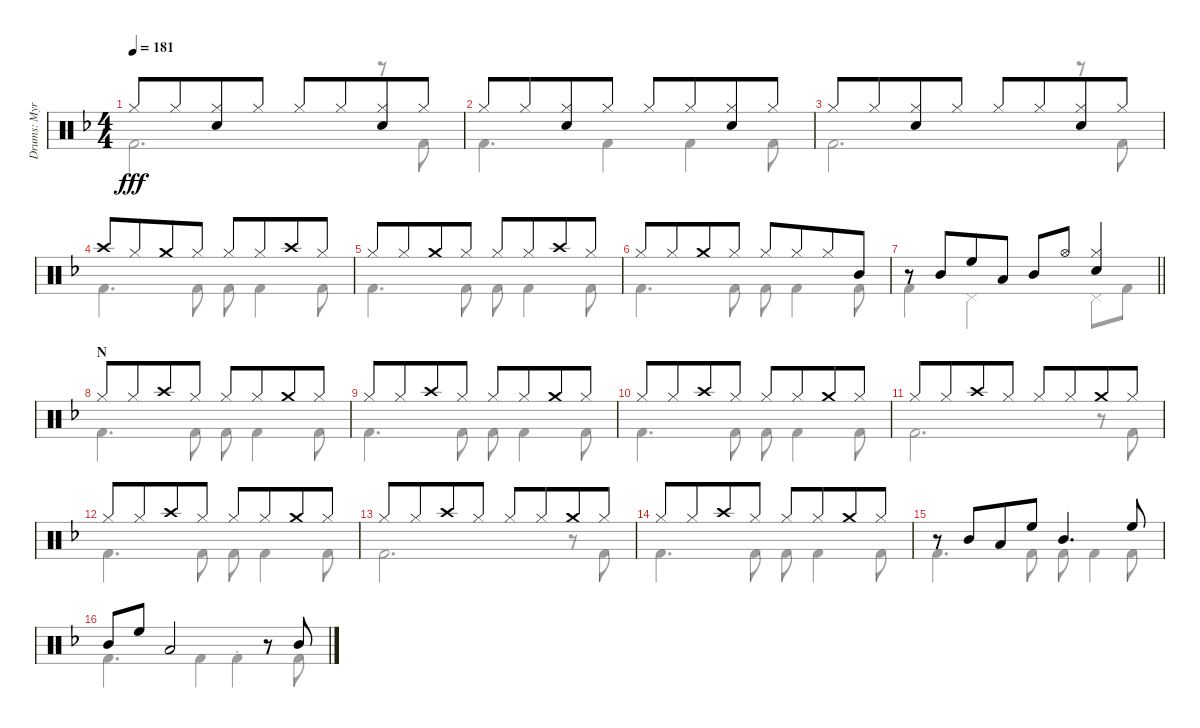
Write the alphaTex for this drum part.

\track ("Drums: Myron" "Drums: Myr") {instrument percussion}
\staff {score}
\articulation defaults
\voice
\ts (4 4)
\tempo 181
\clef neutral
\ks f "Hi-Hat (closed)".8{dy fff} "Hi-Hat (closed)".8{beam merge}
("Hi-Hat (closed)" "Electric Snare (hit)").8 "Hi-Hat (closed)".8 "Hi-Hat (closed)".8 "Hi-Hat (closed)".8{beam merge} ("Hi-Hat (closed)" "Electric Snare (hit)").8 "Hi-Hat (closed)".8 |
"Hi-Hat (closed)".8 "Hi-Hat (closed)".8{beam merge} ("Hi-Hat (closed)" "Electric Snare (hit)").8 "Hi-Hat (closed)".8 "Hi-Hat (closed)".8 "Hi-Hat (closed)".8{beam merge} ("Hi-Hat (closed)" "Electric Snare (hit)").8 "Hi-Hat (closed)".8 |
"Hi-Hat (closed)".8 "Hi-Hat (closed)".8{beam merge} ("Hi-Hat (closed)" "Electric Snare (hit)").8 "Hi-Hat (closed)".8 "Hi-Hat (closed)".8 "Hi-Hat (closed)".8{beam merge} ("Hi-Hat (closed)" "Electric Snare (hit)").8 "Hi-Hat (closed)".8 |
"Crash high (hit)".8 "Hi-Hat (closed)".8{beam merge} "Crash medium (hit)".8 "Hi-Hat (closed)".8 "Hi-Hat (closed)".8 "Hi-Hat (closed)".8{beam merge} "Crash high (hit)".8 "Hi-Hat (closed)".8 |
"Hi-Hat (closed)".8 "Hi-Hat (closed)".8{beam merge} "Crash medium (hit)".8 "Hi-Hat (closed)".8 "Hi-Hat (closed)".8 "Hi-Hat (closed)".8{beam merge} "Crash high (hit)".8 "Hi-Hat (closed)".8 |
"Hi-Hat (closed)".8 "Hi-Hat (closed)".8{beam merge} "Crash medium (hit)".8 "Hi-Hat (closed)".8 "Hi-Hat (closed)".8 "Hi-Hat (closed)".8{beam merge} "Hi-Hat (closed)".8 "Mid Tom (hit)".8 |
\barLineRight lightlight
r.8 "Mid Tom (hit)".8{beam merge} "High Floor Tom (hit)".8 "Low Tom (hit)".8 "Mid Tom (hit)".8 "Hi-Hat (open)".8 ("Hi-Hat (closed)" "Snare (hit) 2").4 |
\section ("" "N")
"Hi-Hat (closed)".8 "Hi-Hat (closed)".8{beam merge} "Crash high (hit)".8 "Hi-Hat (closed)".8 "Hi-Hat (closed)".8 "Hi-Hat (closed)".8{beam merge} "Crash medium (hit)".8 "Hi-Hat (closed)".8 |
"Hi-Hat (closed)".8 "Hi-Hat (closed)".8{beam merge} "Crash high (hit)".8 "Hi-Hat (closed)".8 "Hi-Hat (closed)".8 "Hi-Hat (closed)".8{beam merge} "Crash medium (hit)".8 "Hi-Hat (closed)".8 |
"Hi-Hat (closed)".8 "Hi-Hat (closed)".8{beam merge} "Crash high (hit)".8 "Hi-Hat (closed)".8 "Hi-Hat (closed)".8 "Hi-Hat (closed)".8{beam merge} "Crash medium (hit)".8 "Hi-Hat (closed)".8 |
"Hi-Hat (closed)".8 "Hi-Hat (closed)".8{beam merge} "Crash high (hit)".8 "Hi-Hat (closed)".8 "Hi-Hat (closed)".8 "Hi-Hat (closed)".8{beam merge} "Crash medium (hit)".8 "Hi-Hat (closed)".8 |
"Hi-Hat (closed)".8 "Hi-Hat (closed)".8{beam merge} "Crash high (hit)".8 "Hi-Hat (closed)".8 "Hi-Hat (closed)".8 "Hi-Hat (closed)".8{beam merge} "Crash medium (hit)".8 "Hi-Hat (closed)".8 |
"Hi-Hat (closed)".8 "Hi-Hat (closed)".8{beam merge} "Crash high (hit)".8 "Hi-Hat (closed)".8 "Hi-Hat (closed)".8 "Hi-Hat (closed)".8{beam merge} "Crash medium (hit)".8 "Hi-Hat (closed)".8 |
"Hi-Hat (closed)".8 "Hi-Hat (closed)".8{beam merge} "Crash high (hit)".8 "Hi-Hat (closed)".8 "Hi-Hat (closed)".8 "Hi-Hat (closed)".8{beam merge} "Crash medium (hit)".8 "Hi-Hat (closed)".8 |
r.8 "Mid Tom (hit)".8{beam merge} "Low Tom (hit)".8 "High Floor Tom (hit)".8 "Mid Tom (hit)".4{d} "High Floor Tom (hit)".8 |
"Mid Tom (hit)".8 "High Floor Tom (hit)".8 "Low Tom (hit)".2 r.8 "Mid Tom (hit)".8
\voice
\clef neutral
\ottava regular
\simile none
\ks f "Kick (hit) 2".2{d dy fff}
r.8 "Kick (hit) 2".8 |
"Kick (hit) 2".4{d} "Kick (hit) 2".4 "Kick (hit) 2".4 "Kick (hit) 2".8 |
"Kick (hit) 2".2{d} r.8 "Kick (hit) 2".8 |
"Kick (hit) 2".4{d} "Kick (hit) 2".8 "Kick (hit) 2".8 "Kick (hit) 2".4 "Kick (hit) 2".8 |
"Kick (hit) 2".4{d} "Kick (hit) 2".8 "Kick (hit) 2".8 "Kick (hit) 2".4 "Kick (hit) 2".8 |
"Kick (hit) 2".4{d} "Kick (hit) 2".8 "Kick (hit) 2".8 "Kick (hit) 2".4 "Kick (hit) 2".8 |
\barLineRight lightlight "Kick (hit) 2".4 "Pedal Hi-Hat (hit)".2 "Pedal Hi-Hat (hit)".8 "Kick (hit) 2".8
|
"Kick (hit) 2".4{d} "Kick (hit) 2".8 "Kick (hit) 2".8 "Kick (hit) 2".4 "Kick (hit) 2".8 |
"Kick (hit) 2".4{d} "Kick (hit) 2".8 "Kick (hit) 2".8 "Kick (hit) 2".4 "Kick (hit) 2".8 |
"Kick (hit) 2".4{d} "Kick (hit) 2".8 "Kick (hit) 2".8 "Kick (hit) 2".4 "Kick (hit) 2".8 |
"Kick (hit) 2".2{d} r.8 "Kick (hit) 2".8 |
"Kick (hit) 2".4{d} "Kick (hit) 2".8 "Kick (hit) 2".8 "Kick (hit) 2".4 "Kick (hit) 2".8 |
"Kick (hit) 2".2{d} r.8 "Kick (hit) 2".8 |
"Kick (hit) 2".4{d} "Kick (hit) 2".8 "Kick (hit) 2".8 "Kick (hit) 2".4 "Kick (hit) 2".8 |
"Kick (hit) 2".4{d} "Kick (hit) 2".8 "Kick (hit) 2".8 "Kick (hit) 2".4 "Kick (hit) 2".8 |
"Kick (hit) 2".4{d} "Kick (hit) 2".4 "Kick (hit) 2"{st}.4 "Kick (hit) 2".8
